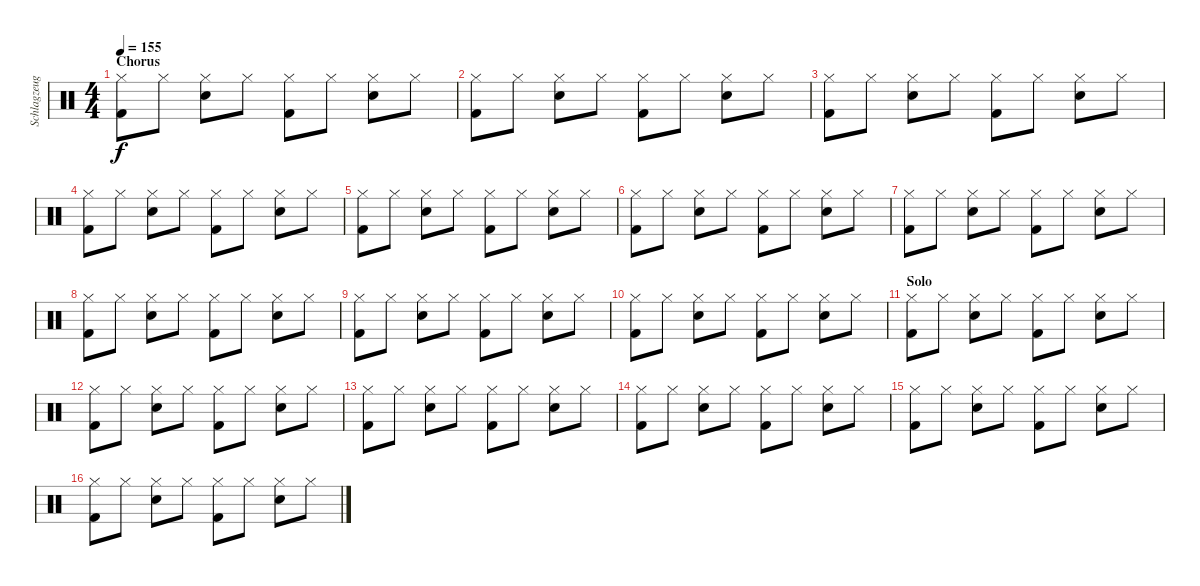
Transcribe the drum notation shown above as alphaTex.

\track ("Schlagzeug - Bela B." "Schlagzeug") {instrument percussion}
\staff {score}
\articulation defaults
\ts (4 4)
\section ("" "Chorus")
\tempo 155
\clef neutral
\ks c
("Hi-Hat (closed)" "Kick (hit) 2").8{dy f} "Hi-Hat (closed)".8 ("Hi-Hat (closed)" "Snare (hit) 2").8 "Hi-Hat (closed)".8 ("Hi-Hat (closed)" "Kick (hit) 2").8 "Hi-Hat (closed)".8 ("Hi-Hat (closed)" "Snare (hit) 2").8 "Hi-Hat (closed)".8 |
("Hi-Hat (closed)" "Kick (hit) 2").8 "Hi-Hat (closed)".8 ("Hi-Hat (closed)" "Snare (hit) 2").8 "Hi-Hat (closed)".8 ("Hi-Hat (closed)" "Kick (hit) 2").8 "Hi-Hat (closed)".8 ("Hi-Hat (closed)" "Snare (hit) 2").8 "Hi-Hat (closed)".8 |
("Hi-Hat (closed)" "Kick (hit) 2").8 "Hi-Hat (closed)".8 ("Hi-Hat (closed)" "Snare (hit) 2").8 "Hi-Hat (closed)".8 ("Hi-Hat (closed)" "Kick (hit) 2").8 "Hi-Hat (closed)".8 ("Hi-Hat (closed)" "Snare (hit) 2").8 "Hi-Hat (closed)".8 |
("Hi-Hat (closed)" "Kick (hit) 2").8 "Hi-Hat (closed)".8 ("Hi-Hat (closed)" "Snare (hit) 2").8 "Hi-Hat (closed)".8 ("Hi-Hat (closed)" "Kick (hit) 2").8 "Hi-Hat (closed)".8 ("Hi-Hat (closed)" "Snare (hit) 2").8 "Hi-Hat (closed)".8 |
("Hi-Hat (closed)" "Kick (hit) 2").8 "Hi-Hat (closed)".8 ("Hi-Hat (closed)" "Snare (hit) 2").8 "Hi-Hat (closed)".8 ("Hi-Hat (closed)" "Kick (hit) 2").8 "Hi-Hat (closed)".8 ("Hi-Hat (closed)" "Snare (hit) 2").8 "Hi-Hat (closed)".8 |
("Hi-Hat (closed)" "Kick (hit) 2").8 "Hi-Hat (closed)".8 ("Hi-Hat (closed)" "Snare (hit) 2").8 "Hi-Hat (closed)".8 ("Hi-Hat (closed)" "Kick (hit) 2").8 "Hi-Hat (closed)".8 ("Hi-Hat (closed)" "Snare (hit) 2").8 "Hi-Hat (closed)".8 |
("Hi-Hat (closed)" "Kick (hit) 2").8 "Hi-Hat (closed)".8 ("Hi-Hat (closed)" "Snare (hit) 2").8 "Hi-Hat (closed)".8 ("Hi-Hat (closed)" "Kick (hit) 2").8 "Hi-Hat (closed)".8 ("Hi-Hat (closed)" "Snare (hit) 2").8 "Hi-Hat (closed)".8 |
("Hi-Hat (closed)" "Kick (hit) 2").8 "Hi-Hat (closed)".8 ("Hi-Hat (closed)" "Snare (hit) 2").8 "Hi-Hat (closed)".8 ("Hi-Hat (closed)" "Kick (hit) 2").8 "Hi-Hat (closed)".8 ("Hi-Hat (closed)" "Snare (hit) 2").8 "Hi-Hat (closed)".8 |
("Hi-Hat (closed)" "Kick (hit) 2").8 "Hi-Hat (closed)".8 ("Hi-Hat (closed)" "Snare (hit) 2").8 "Hi-Hat (closed)".8 ("Hi-Hat (closed)" "Kick (hit) 2").8 "Hi-Hat (closed)".8 ("Hi-Hat (closed)" "Snare (hit) 2").8 "Hi-Hat (closed)".8 |
("Hi-Hat (closed)" "Kick (hit) 2").8 "Hi-Hat (closed)".8 ("Hi-Hat (closed)" "Snare (hit) 2").8 "Hi-Hat (closed)".8 ("Hi-Hat (closed)" "Kick (hit) 2").8 "Hi-Hat (closed)".8 ("Hi-Hat (closed)" "Snare (hit) 2").8 "Hi-Hat (closed)".8 |
\section ("" "Solo")
("Hi-Hat (closed)" "Kick (hit) 2").8 "Hi-Hat (closed)".8 ("Hi-Hat (closed)" "Snare (hit) 2").8 "Hi-Hat (closed)".8 ("Hi-Hat (closed)" "Kick (hit) 2").8 "Hi-Hat (closed)".8 ("Hi-Hat (closed)" "Snare (hit) 2").8 "Hi-Hat (closed)".8 |
("Hi-Hat (closed)" "Kick (hit) 2").8 "Hi-Hat (closed)".8 ("Hi-Hat (closed)" "Snare (hit) 2").8 "Hi-Hat (closed)".8 ("Hi-Hat (closed)" "Kick (hit) 2").8 "Hi-Hat (closed)".8 ("Hi-Hat (closed)" "Snare (hit) 2").8 "Hi-Hat (closed)".8 |
("Hi-Hat (closed)" "Kick (hit) 2").8 "Hi-Hat (closed)".8 ("Hi-Hat (closed)" "Snare (hit) 2").8 "Hi-Hat (closed)".8 ("Hi-Hat (closed)" "Kick (hit) 2").8 "Hi-Hat (closed)".8 ("Hi-Hat (closed)" "Snare (hit) 2").8 "Hi-Hat (closed)".8 |
("Hi-Hat (closed)" "Kick (hit) 2").8 "Hi-Hat (closed)".8 ("Hi-Hat (closed)" "Snare (hit) 2").8 "Hi-Hat (closed)".8 ("Hi-Hat (closed)" "Kick (hit) 2").8 "Hi-Hat (closed)".8 ("Hi-Hat (closed)" "Snare (hit) 2").8 "Hi-Hat (closed)".8 |
("Hi-Hat (closed)" "Kick (hit) 2").8 "Hi-Hat (closed)".8 ("Hi-Hat (closed)" "Snare (hit) 2").8 "Hi-Hat (closed)".8 ("Hi-Hat (closed)" "Kick (hit) 2").8 "Hi-Hat (closed)".8 ("Hi-Hat (closed)" "Snare (hit) 2").8 "Hi-Hat (closed)".8 |
("Hi-Hat (closed)" "Kick (hit) 2").8 "Hi-Hat (closed)".8 ("Hi-Hat (closed)" "Snare (hit) 2").8 "Hi-Hat (closed)".8 ("Hi-Hat (closed)" "Kick (hit) 2").8 "Hi-Hat (closed)".8 ("Hi-Hat (closed)" "Snare (hit) 2").8 "Hi-Hat (closed)".8
